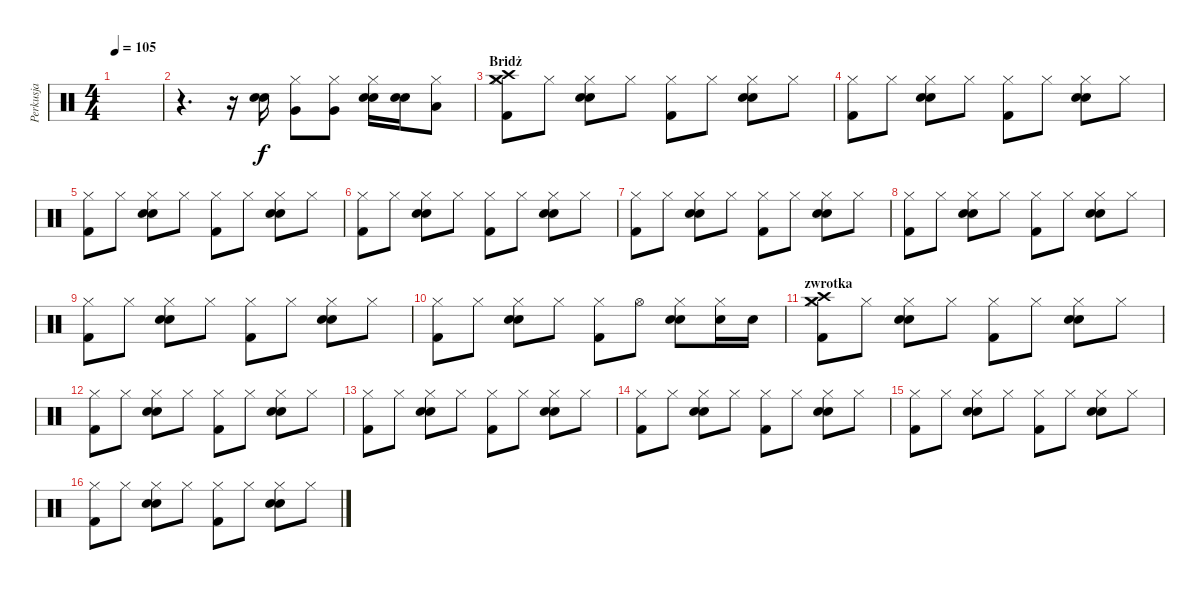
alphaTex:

\track ("Perkusja" "Perkusja") {instrument percussion}
\staff {score}
\articulation defaults
\ts (4 4)
\tempo 105
\clef neutral
\ks c
|
r.4{d} r.16 ("Electric Snare (hit)" "Snare (hit) 2").16 ("Very Low Tom (hit)" "Hi-Hat (closed)").8 ("Very Low Tom (hit)" "Hi-Hat (closed)").8 ("Electric Snare (hit)" "Snare (hit) 2" "Hi-Hat (closed)").16 ("Electric Snare (hit)" "Snare (hit) 2").16 ("Low Floor Tom (hit)" "Hi-Hat (closed)").8 |
\section ("" "Bridż")
("Crash medium (hit)" "Crash high (hit)" "Kick (hit) 2" "Hi-Hat (closed)").8 "Hi-Hat (closed)".8 ("Electric Snare (hit)" "Snare (hit) 2" "Hi-Hat (closed)").8 "Hi-Hat (closed)".8 ("Kick (hit) 2" "Hi-Hat (closed)").8 "Hi-Hat (closed)".8 ("Electric Snare (hit)" "Snare (hit) 2" "Hi-Hat (closed)").8 "Hi-Hat (closed)".8 |
("Kick (hit) 2" "Hi-Hat (closed)").8 "Hi-Hat (closed)".8 ("Electric Snare (hit)" "Snare (hit) 2" "Hi-Hat (closed)").8 "Hi-Hat (closed)".8 ("Kick (hit) 2" "Hi-Hat (closed)").8 "Hi-Hat (closed)".8 ("Electric Snare (hit)" "Snare (hit) 2" "Hi-Hat (closed)").8 "Hi-Hat (closed)".8 |
("Kick (hit) 2" "Hi-Hat (closed)").8 "Hi-Hat (closed)".8 ("Electric Snare (hit)" "Snare (hit) 2" "Hi-Hat (closed)").8 "Hi-Hat (closed)".8 ("Kick (hit) 2" "Hi-Hat (closed)").8 "Hi-Hat (closed)".8 ("Electric Snare (hit)" "Snare (hit) 2" "Hi-Hat (closed)").8 "Hi-Hat (closed)".8 |
("Kick (hit) 2" "Hi-Hat (closed)").8 "Hi-Hat (closed)".8 ("Electric Snare (hit)" "Snare (hit) 2" "Hi-Hat (closed)").8 "Hi-Hat (closed)".8 ("Kick (hit) 2" "Hi-Hat (closed)").8 "Hi-Hat (closed)".8 ("Electric Snare (hit)" "Snare (hit) 2" "Hi-Hat (closed)").8 "Hi-Hat (closed)".8 |
("Kick (hit) 2" "Hi-Hat (closed)").8 "Hi-Hat (closed)".8 ("Electric Snare (hit)" "Snare (hit) 2" "Hi-Hat (closed)").8 "Hi-Hat (closed)".8 ("Kick (hit) 2" "Hi-Hat (closed)").8 "Hi-Hat (closed)".8 ("Electric Snare (hit)" "Snare (hit) 2" "Hi-Hat (closed)").8 "Hi-Hat (closed)".8 |
("Kick (hit) 2" "Hi-Hat (closed)").8 "Hi-Hat (closed)".8 ("Electric Snare (hit)" "Snare (hit) 2" "Hi-Hat (closed)").8 "Hi-Hat (closed)".8 ("Kick (hit) 2" "Hi-Hat (closed)").8 "Hi-Hat (closed)".8 ("Electric Snare (hit)" "Snare (hit) 2" "Hi-Hat (closed)").8 "Hi-Hat (closed)".8 |
("Kick (hit) 2" "Hi-Hat (closed)").8 "Hi-Hat (closed)".8 ("Electric Snare (hit)" "Snare (hit) 2" "Hi-Hat (closed)").8 "Hi-Hat (closed)".8 ("Kick (hit) 2" "Hi-Hat (closed)").8 "Hi-Hat (closed)".8 ("Electric Snare (hit)" "Snare (hit) 2" "Hi-Hat (closed)").8 "Hi-Hat (closed)".8 |
("Kick (hit) 2" "Hi-Hat (closed)").8 "Hi-Hat (closed)".8 ("Electric Snare (hit)" "Snare (hit) 2" "Hi-Hat (closed)").8 "Hi-Hat (closed)".8 ("Kick (hit) 2" "Hi-Hat (closed)").8 "Hi-Hat (open)".8 ("Electric Snare (hit)" "Snare (hit) 2" "Hi-Hat (closed)").8 ("Electric Snare (hit)" "Hi-Hat (closed)").16 "Electric Snare (hit)".16 |
\section ("" "zwrotka")
("Crash medium (hit)" "Crash high (hit)" "Kick (hit) 2" "Hi-Hat (closed)").8 "Hi-Hat (closed)".8 ("Electric Snare (hit)" "Snare (hit) 2" "Hi-Hat (closed)").8 "Hi-Hat (closed)".8 ("Kick (hit) 2" "Hi-Hat (closed)").8 "Hi-Hat (closed)".8 ("Electric Snare (hit)" "Snare (hit) 2" "Hi-Hat (closed)").8 "Hi-Hat (closed)".8 |
("Kick (hit) 2" "Hi-Hat (closed)").8 "Hi-Hat (closed)".8 ("Electric Snare (hit)" "Snare (hit) 2" "Hi-Hat (closed)").8 "Hi-Hat (closed)".8 ("Kick (hit) 2" "Hi-Hat (closed)").8 "Hi-Hat (closed)".8 ("Electric Snare (hit)" "Snare (hit) 2" "Hi-Hat (closed)").8 "Hi-Hat (closed)".8 |
("Kick (hit) 2" "Hi-Hat (closed)").8 "Hi-Hat (closed)".8 ("Electric Snare (hit)" "Snare (hit) 2" "Hi-Hat (closed)").8 "Hi-Hat (closed)".8 ("Kick (hit) 2" "Hi-Hat (closed)").8 "Hi-Hat (closed)".8 ("Electric Snare (hit)" "Snare (hit) 2" "Hi-Hat (closed)").8 "Hi-Hat (closed)".8 |
("Kick (hit) 2" "Hi-Hat (closed)").8 "Hi-Hat (closed)".8 ("Electric Snare (hit)" "Snare (hit) 2" "Hi-Hat (closed)").8 "Hi-Hat (closed)".8 ("Kick (hit) 2" "Hi-Hat (closed)").8 "Hi-Hat (closed)".8 ("Electric Snare (hit)" "Snare (hit) 2" "Hi-Hat (closed)").8 "Hi-Hat (closed)".8 |
("Kick (hit) 2" "Hi-Hat (closed)").8 "Hi-Hat (closed)".8 ("Electric Snare (hit)" "Snare (hit) 2" "Hi-Hat (closed)").8 "Hi-Hat (closed)".8 ("Kick (hit) 2" "Hi-Hat (closed)").8 "Hi-Hat (closed)".8 ("Electric Snare (hit)" "Snare (hit) 2" "Hi-Hat (closed)").8 "Hi-Hat (closed)".8 |
("Kick (hit) 2" "Hi-Hat (closed)").8 "Hi-Hat (closed)".8 ("Electric Snare (hit)" "Snare (hit) 2" "Hi-Hat (closed)").8 "Hi-Hat (closed)".8 ("Kick (hit) 2" "Hi-Hat (closed)").8 "Hi-Hat (closed)".8 ("Electric Snare (hit)" "Snare (hit) 2" "Hi-Hat (closed)").8 "Hi-Hat (closed)".8
